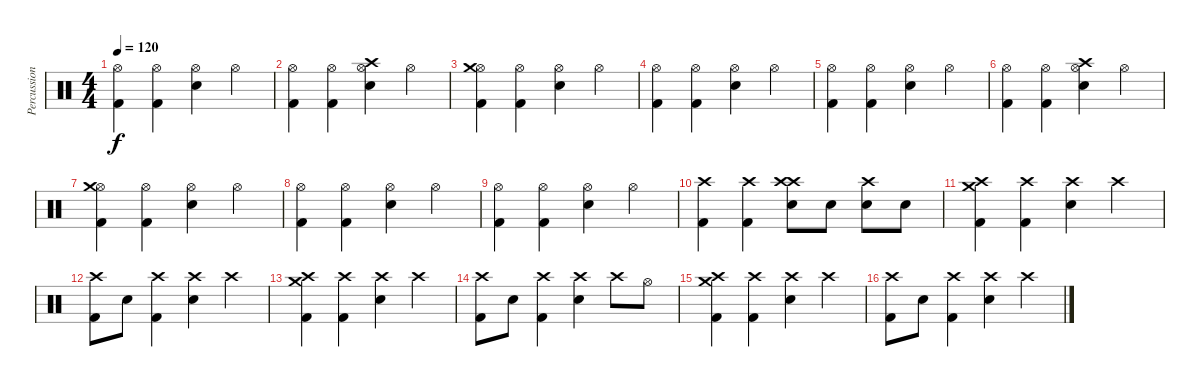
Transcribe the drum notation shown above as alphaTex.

\track ("Percussioni" "Percussion") {instrument percussion}
\staff {score}
\articulation defaults
\ts (4 4)
\tempo 120
\clef neutral
\ks c
("Hi-Hat (open)" "Kick (hit) 2").4{dy f} ("Hi-Hat (open)" "Kick (hit) 2").4 ("Hi-Hat (open)" "Snare (hit) 2").4 "Hi-Hat (open)".4 |
("Hi-Hat (open)" "Kick (hit) 2").4 ("Hi-Hat (open)" "Kick (hit) 2").4 ("Hi-Hat (open)" "Crash high (hit)" "Snare (hit) 2").4 "Hi-Hat (open)".4 |
("Hi-Hat (open)" "Crash medium (hit)" "Kick (hit) 2").4 ("Hi-Hat (open)" "Kick (hit) 2").4 ("Hi-Hat (open)" "Snare (hit) 2").4 "Hi-Hat (open)".4 |
("Hi-Hat (open)" "Kick (hit) 2").4 ("Hi-Hat (open)" "Kick (hit) 2").4 ("Hi-Hat (open)" "Snare (hit) 2").4 "Hi-Hat (open)".4 |
("Hi-Hat (open)" "Kick (hit) 2").4 ("Hi-Hat (open)" "Kick (hit) 2").4 ("Hi-Hat (open)" "Snare (hit) 2").4 "Hi-Hat (open)".4 |
("Hi-Hat (open)" "Kick (hit) 2").4 ("Hi-Hat (open)" "Kick (hit) 2").4 ("Hi-Hat (open)" "Crash high (hit)" "Snare (hit) 2").4 "Hi-Hat (open)".4 |
("Hi-Hat (open)" "Crash medium (hit)" "Kick (hit) 2").4 ("Hi-Hat (open)" "Kick (hit) 2").4 ("Hi-Hat (open)" "Snare (hit) 2").4 "Hi-Hat (open)".4 |
("Hi-Hat (open)" "Kick (hit) 2").4 ("Hi-Hat (open)" "Kick (hit) 2").4 ("Hi-Hat (open)" "Snare (hit) 2").4 "Hi-Hat (open)".4 |
("Hi-Hat (open)" "Kick (hit) 2").4 ("Hi-Hat (open)" "Kick (hit) 2").4 ("Hi-Hat (open)" "Snare (hit) 2").4 "Hi-Hat (open)".4 |
("Crash high (hit)" "Kick (hit) 2").4 ("Crash high (hit)" "Kick (hit) 2").4 ("Crash high (hit)" "Crash high (hit)" "Snare (hit) 2").8 "Snare (hit) 2".8 ("Crash high (hit)" "Snare (hit) 2").8 "Snare (hit) 2".8 |
("Crash high (hit)" "Kick (hit) 2" "Crash medium (hit)").4 ("Crash high (hit)" "Kick (hit) 2").4 ("Crash high (hit)" "Snare (hit) 2").4 "Crash high (hit)".4 |
("Crash high (hit)" "Kick (hit) 2").8 "Snare (hit) 2".8 ("Crash high (hit)" "Kick (hit) 2").4 ("Crash high (hit)" "Snare (hit) 2").4 "Crash high (hit)".4 |
("Crash high (hit)" "Kick (hit) 2" "Crash medium (hit)").4 ("Crash high (hit)" "Kick (hit) 2").4 ("Crash high (hit)" "Snare (hit) 2").4 "Crash high (hit)".4 |
("Crash high (hit)" "Kick (hit) 2").8 "Snare (hit) 2".8 ("Crash high (hit)" "Kick (hit) 2").4 ("Crash high (hit)" "Snare (hit) 2").4 "Crash high (hit)".8 "Hi-Hat (open)".8 |
("Crash high (hit)" "Kick (hit) 2" "Crash medium (hit)").4 ("Crash high (hit)" "Kick (hit) 2").4 ("Crash high (hit)" "Snare (hit) 2").4 "Crash high (hit)".4 |
("Crash high (hit)" "Kick (hit) 2").8 "Snare (hit) 2".8 ("Crash high (hit)" "Kick (hit) 2").4 ("Crash high (hit)" "Snare (hit) 2").4 "Crash high (hit)".4
